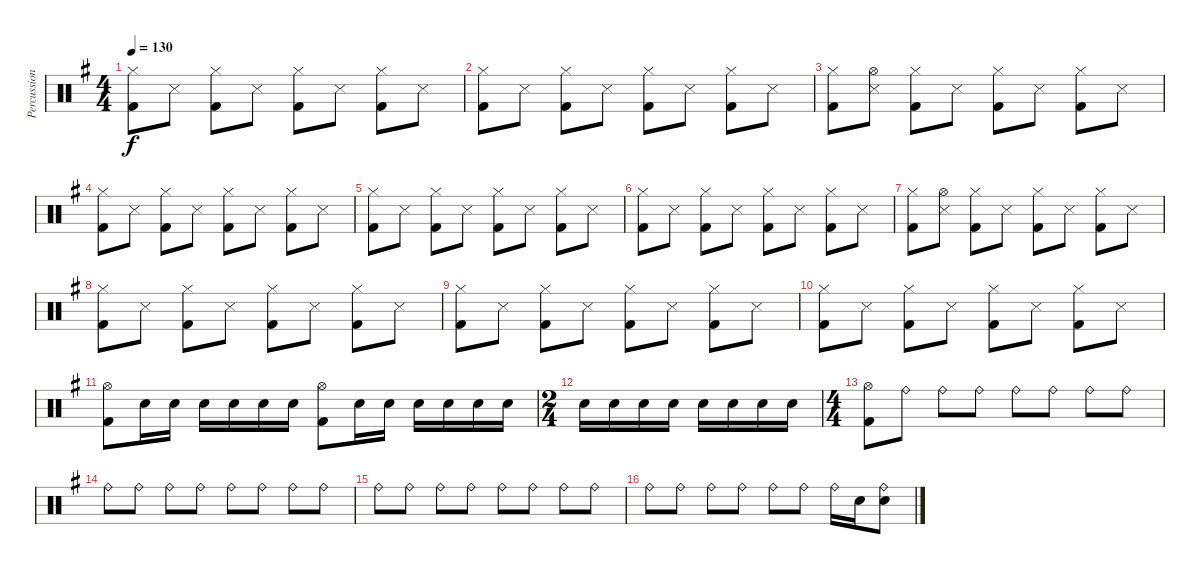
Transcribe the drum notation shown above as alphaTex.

\track ("Percussions" "Percussion") {instrument percussion}
\staff {score}
\articulation defaults
\ts (4 4)
\tempo 130
\clef neutral
\ks g
("Hi-Hat (closed)" "Kick (hit) 2").8{dy f} "Snare (side stick) 3".8 ("Hi-Hat (closed)" "Kick (hit) 2").8 "Snare (side stick) 3".8 ("Hi-Hat (closed)" "Kick (hit) 2").8 "Snare (side stick) 3".8 ("Hi-Hat (closed)" "Kick (hit) 2").8 "Snare (side stick) 3".8 |
("Hi-Hat (closed)" "Kick (hit) 2").8 "Snare (side stick) 3".8 ("Hi-Hat (closed)" "Kick (hit) 2").8 "Snare (side stick) 3".8 ("Hi-Hat (closed)" "Kick (hit) 2").8 "Snare (side stick) 3".8 ("Hi-Hat (closed)" "Kick (hit) 2").8 "Snare (side stick) 3".8 |
("Hi-Hat (closed)" "Kick (hit) 2").8 ("Hi-Hat (open)" "Snare (side stick) 3").8 ("Hi-Hat (closed)" "Kick (hit) 2").8 "Snare (side stick) 3".8 ("Hi-Hat (closed)" "Kick (hit) 2").8 "Snare (side stick) 3".8 ("Hi-Hat (closed)" "Kick (hit) 2").8 "Snare (side stick) 3".8 |
("Hi-Hat (closed)" "Kick (hit) 2").8 "Snare (side stick) 3".8 ("Hi-Hat (closed)" "Kick (hit) 2").8 "Snare (side stick) 3".8 ("Hi-Hat (closed)" "Kick (hit) 2").8 "Snare (side stick) 3".8 ("Hi-Hat (closed)" "Kick (hit) 2").8 "Snare (side stick) 3".8 |
("Hi-Hat (closed)" "Kick (hit) 2").8 "Snare (side stick) 3".8 ("Hi-Hat (closed)" "Kick (hit) 2").8 "Snare (side stick) 3".8 ("Hi-Hat (closed)" "Kick (hit) 2").8 "Snare (side stick) 3".8 ("Hi-Hat (closed)" "Kick (hit) 2").8 "Snare (side stick) 3".8 |
("Hi-Hat (closed)" "Kick (hit) 2").8 "Snare (side stick) 3".8 ("Hi-Hat (closed)" "Kick (hit) 2").8 "Snare (side stick) 3".8 ("Hi-Hat (closed)" "Kick (hit) 2").8 "Snare (side stick) 3".8 ("Hi-Hat (closed)" "Kick (hit) 2").8 "Snare (side stick) 3".8 |
("Hi-Hat (closed)" "Kick (hit) 2").8 ("Hi-Hat (open)" "Snare (side stick) 3").8 ("Hi-Hat (closed)" "Kick (hit) 2").8 "Snare (side stick) 3".8 ("Hi-Hat (closed)" "Kick (hit) 2").8 "Snare (side stick) 3".8 ("Hi-Hat (closed)" "Kick (hit) 2").8 "Snare (side stick) 3".8 |
("Hi-Hat (closed)" "Kick (hit) 2").8 "Snare (side stick) 3".8 ("Hi-Hat (closed)" "Kick (hit) 2").8 "Snare (side stick) 3".8 ("Hi-Hat (closed)" "Kick (hit) 2").8 "Snare (side stick) 3".8 ("Hi-Hat (closed)" "Kick (hit) 2").8 "Snare (side stick) 3".8 |
("Hi-Hat (closed)" "Kick (hit) 2").8 "Snare (side stick) 3".8 ("Hi-Hat (closed)" "Kick (hit) 2").8 "Snare (side stick) 3".8 ("Hi-Hat (closed)" "Kick (hit) 2").8 "Snare (side stick) 3".8 ("Hi-Hat (closed)" "Kick (hit) 2").8 "Snare (side stick) 3".8 |
("Hi-Hat (closed)" "Kick (hit) 2").8 "Snare (side stick) 3".8 ("Hi-Hat (closed)" "Kick (hit) 2").8 "Snare (side stick) 3".8 ("Hi-Hat (closed)" "Kick (hit) 2").8 "Snare (side stick) 3".8 ("Hi-Hat (closed)" "Kick (hit) 2").8 "Snare (side stick) 3".8 |
("Hi-Hat (open)" "Kick (hit) 2").8 "Snare (hit) 2".16 "Snare (hit) 2".16 "Snare (hit) 2".16 "Snare (hit) 2".16 "Snare (hit) 2".16 "Snare (hit) 2".16 ("Hi-Hat (open)" "Kick (hit) 2").8 "Snare (hit) 2".16 "Snare (hit) 2".16 "Snare (hit) 2".16 "Snare (hit) 2".16 "Snare (hit) 2".16 "Snare (hit) 2".16 |
\ts (2 4)
"Snare (hit) 2".16 "Snare (hit) 2".16 "Snare (hit) 2".16 "Snare (hit) 2".16 "Snare (hit) 2".16 "Snare (hit) 2".16 "Snare (hit) 2".16 "Snare (hit) 2".16 |
\ts (4 4)
("Hi-Hat (open)" "Kick (hit) 2").8 "Ride (bell)".8 "Ride (bell)".8 "Ride (bell)".8 "Ride (bell)".8 "Ride (bell)".8 "Ride (bell)".8 "Ride (bell)".8 |
"Ride (bell)".8 "Ride (bell)".8 "Ride (bell)".8 "Ride (bell)".8 "Ride (bell)".8 "Ride (bell)".8 "Ride (bell)".8 "Ride (bell)".8 |
"Ride (bell)".8 "Ride (bell)".8 "Ride (bell)".8 "Ride (bell)".8 "Ride (bell)".8 "Ride (bell)".8 "Ride (bell)".8 "Ride (bell)".8 |
"Ride (bell)".8 "Ride (bell)".8 "Ride (bell)".8 "Ride (bell)".8 "Ride (bell)".8 "Ride (bell)".8 "Ride (bell)".16 "Snare (hit) 2".16 ("Ride (bell)" "Snare (hit) 2").8
